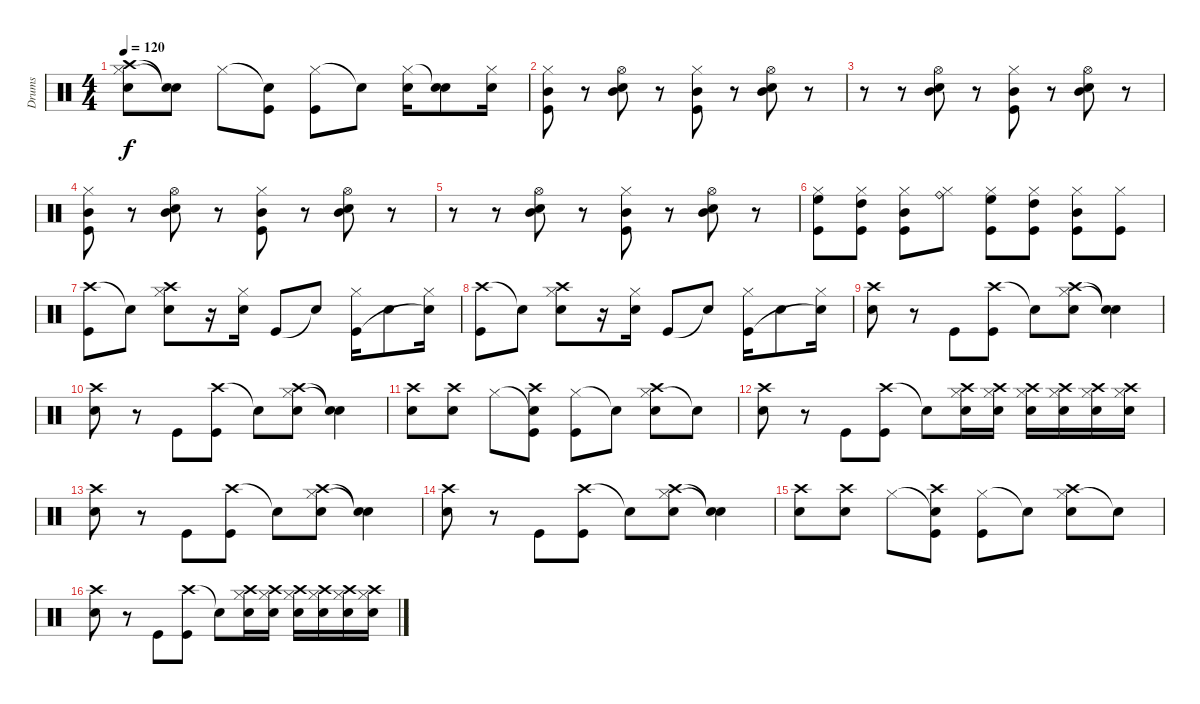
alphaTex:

\track ("Drums" "Drums") {instrument percussion}
\staff {score}
\articulation defaults
\ts (4 4)
\tempo 120
\clef neutral
\ks c
("Hi-Hat (closed)" "Crash high (hit)" "Snare (hit) 2").8{dy f} ("Snare (hit)"{t} "Snare (hit)"{t}).8 "Hi-Hat (closed)".8 ("Snare (hit)"{t} "Kick (hit)").8 ("Hi-Hat (closed)" "Kick (hit)").8 "Snare (hit)"{t}.8 ("Hi-Hat (closed)" "Snare (hit) 2").16 ("Snare (hit)"{t} "Snare (hit) 2").8 ("Hi-Hat (closed)" "Snare (hit) 2").16 |
("Hi-Hat (closed)" "Mid Tom (hit)" "Kick (hit)").8 r.8 ("Hi-Hat (open)" "Mid Tom (hit)" "Snare (hit) 2").8 r.8 ("Hi-Hat (closed)" "Mid Tom (hit)" "Kick (hit)").8 r.8 ("Hi-Hat (open)" "Mid Tom (hit)" "Snare (hit) 2").8 r.8 |
r.8 r.8 ("Hi-Hat (open)" "Mid Tom (hit)" "Snare (hit) 2").8 r.8 ("Hi-Hat (closed)" "Mid Tom (hit)" "Kick (hit)").8 r.8 ("Hi-Hat (open)" "Mid Tom (hit)" "Snare (hit) 2").8 r.8 |
("Hi-Hat (closed)" "Mid Tom (hit)" "Kick (hit)").8 r.8 ("Hi-Hat (open)" "Mid Tom (hit)" "Snare (hit) 2").8 r.8 ("Hi-Hat (closed)" "Mid Tom (hit)" "Kick (hit)").8 r.8 ("Hi-Hat (open)" "Mid Tom (hit)" "Snare (hit) 2").8 r.8 |
r.8 r.8 ("Hi-Hat (open)" "Mid Tom (hit)" "Snare (hit) 2").8 r.8 ("Hi-Hat (closed)" "Mid Tom (hit)" "Kick (hit)").8 r.8 ("Hi-Hat (open)" "Mid Tom (hit)" "Snare (hit) 2").8 r.8 |
("High Floor Tom (hit)" "Hi-Hat (closed)" "Kick (hit)").8 ("High Tom (hit)" "Hi-Hat (closed)" "Kick (hit)").8 ("Mid Tom (hit)" "Hi-Hat (closed)" "Kick (hit)").8 ("Hi-Hat (closed)" "Ride (bell)").8 ("High Floor Tom (hit)" "Hi-Hat (closed)" "Kick (hit)").8 ("High Tom (hit)" "Hi-Hat (closed)" "Kick (hit)").8 ("Mid Tom (hit)" "Hi-Hat (closed)" "Kick (hit)").8 ("Hi-Hat (closed)" "Kick (hit)").8 |
("Crash high (hit)" "Kick (hit)").8 "Snare (hit)"{t}.8 ("Crash high (hit)" "Hi-Hat (closed)" "Snare (hit) 2").8 r.16 ("Hi-Hat (closed)" "Snare (hit) 2").16 "Kick (hit)".8 "Snare (hit)"{t}.8 ("Hi-Hat (closed)" "Kick (hit)").16 "Snare (hit) 2".8 ("Hi-Hat (closed)" "Snare (hit)"{t}).16 |
("Crash high (hit)" "Kick (hit)").8 "Snare (hit)"{t}.8 ("Crash high (hit)" "Hi-Hat (closed)" "Snare (hit) 2").8 r.16 ("Hi-Hat (closed)" "Snare (hit) 2").16 "Kick (hit)".8 "Snare (hit)"{t}.8 ("Hi-Hat (closed)" "Kick (hit)").16 "Snare (hit) 2".8 ("Hi-Hat (closed)" "Snare (hit)"{t}).16 |
("Crash high (hit)" "Snare (hit) 2").8 r.8 "Kick (hit)".8 ("Crash high (hit)" "Kick (hit)").8 "Snare (hit)"{t}.8 ("Hi-Hat (closed)" "Crash high (hit)" "Snare (hit) 2").8 ("Snare (hit)"{t} "Snare (hit)"{t}).4 |
("Crash high (hit)" "Snare (hit) 2").8 r.8 "Kick (hit)".8 ("Crash high (hit)" "Kick (hit)").8 "Snare (hit)"{t}.8 ("Hi-Hat (closed)" "Crash high (hit)" "Snare (hit) 2").8 ("Snare (hit)"{t} "Snare (hit)"{t}).4 |
("Crash high (hit)" "Snare (hit) 2").8 ("Crash high (hit)" "Snare (hit) 2").8 "Hi-Hat (closed)".8 ("Snare (hit)"{t} "Crash high (hit)" "Kick (hit)").8 ("Hi-Hat (closed)" "Kick (hit)").8 "Snare (hit)"{t}.8 ("Hi-Hat (closed)" "Crash high (hit)" "Snare (hit) 2").8 "Snare (hit)"{t}.8 |
("Crash high (hit)" "Snare (hit) 2").8 r.8 "Kick (hit)".8 ("Crash high (hit)" "Kick (hit)").8 "Snare (hit)"{t}.8 ("Hi-Hat (closed)" "Crash high (hit)" "Snare (hit) 2").16 ("Hi-Hat (closed)" "Crash high (hit)" "Snare (hit) 2").16 ("Hi-Hat (closed)" "Crash high (hit)" "Snare (hit) 2").16 ("Hi-Hat (closed)" "Crash high (hit)" "Snare (hit) 2").16 ("Hi-Hat (closed)" "Crash high (hit)" "Snare (hit) 2").16 ("Hi-Hat (closed)" "Crash high (hit)" "Snare (hit) 2").16 |
("Crash high (hit)" "Snare (hit) 2").8 r.8 "Kick (hit)".8 ("Crash high (hit)" "Kick (hit)").8 "Snare (hit)"{t}.8 ("Hi-Hat (closed)" "Crash high (hit)" "Snare (hit) 2").8 ("Snare (hit)"{t} "Snare (hit)"{t}).4 |
("Crash high (hit)" "Snare (hit) 2").8 r.8 "Kick (hit)".8 ("Crash high (hit)" "Kick (hit)").8 "Snare (hit)"{t}.8 ("Hi-Hat (closed)" "Crash high (hit)" "Snare (hit) 2").8 ("Snare (hit)"{t} "Snare (hit)"{t}).4 |
("Crash high (hit)" "Snare (hit) 2").8 ("Crash high (hit)" "Snare (hit) 2").8 "Hi-Hat (closed)".8 ("Snare (hit)"{t} "Crash high (hit)" "Kick (hit)").8 ("Hi-Hat (closed)" "Kick (hit)").8 "Snare (hit)"{t}.8 ("Hi-Hat (closed)" "Crash high (hit)" "Snare (hit) 2").8 "Snare (hit)"{t}.8 |
("Crash high (hit)" "Snare (hit) 2").8 r.8 "Kick (hit)".8 ("Crash high (hit)" "Kick (hit)").8 "Snare (hit)"{t}.8 ("Hi-Hat (closed)" "Crash high (hit)" "Snare (hit) 2").16 ("Hi-Hat (closed)" "Crash high (hit)" "Snare (hit) 2").16 ("Hi-Hat (closed)" "Crash high (hit)" "Snare (hit) 2").16 ("Hi-Hat (closed)" "Crash high (hit)" "Snare (hit) 2").16 ("Hi-Hat (closed)" "Crash high (hit)" "Snare (hit) 2").16 ("Hi-Hat (closed)" "Crash high (hit)" "Snare (hit) 2").16
